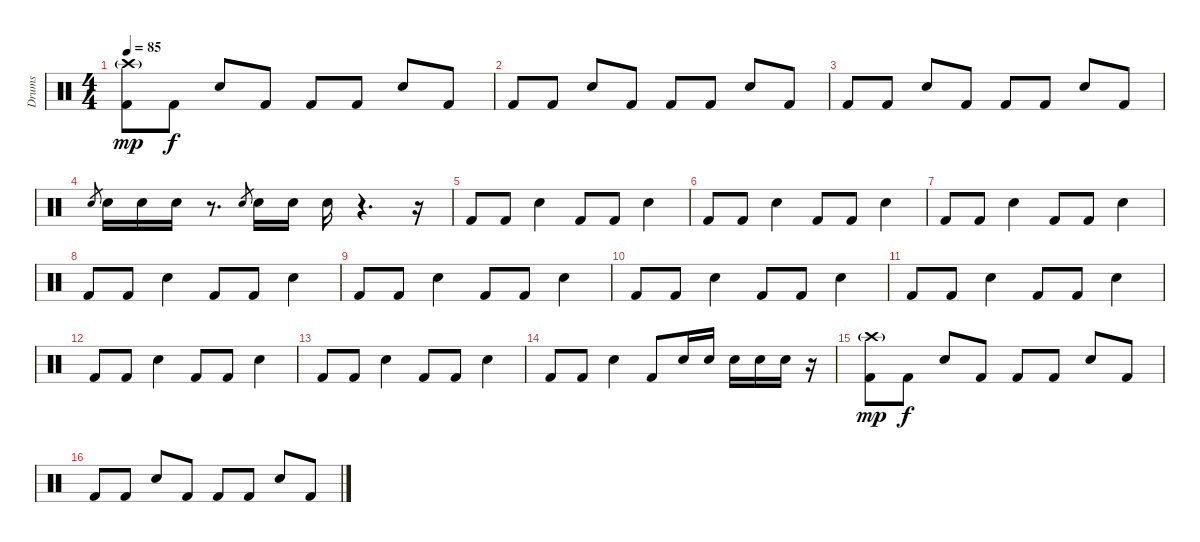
\track ("Drums" "Drums") {instrument percussion}
\staff {score}
\articulation defaults
\ts (4 4)
\tempo 85
\clef neutral
\ks c
("Kick (hit) 2" "Crash high (hit)"{g}).8{dy mp} "Kick (hit) 2".8{dy f} "Electric Snare (hit)".8 "Kick (hit) 2".8 "Kick (hit) 2".8 "Kick (hit) 2".8 "Electric Snare (hit)".8 "Kick (hit) 2".8 |
"Kick (hit) 2".8 "Kick (hit) 2".8 "Electric Snare (hit)".8 "Kick (hit) 2".8 "Kick (hit) 2".8 "Kick (hit) 2".8 "Electric Snare (hit)".8 "Kick (hit) 2".8 |
"Kick (hit) 2".8 "Kick (hit) 2".8 "Electric Snare (hit)".8 "Kick (hit) 2".8 "Kick (hit) 2".8 "Kick (hit) 2".8 "Electric Snare (hit)".8 "Kick (hit) 2".8 |
"Electric Snare (hit)".8{gr} "Electric Snare (hit)".16 "Electric Snare (hit)".16 "Electric Snare (hit)".16 r.8{d} "Electric Snare (hit)".8{gr} "Electric Snare (hit)".16 "Electric Snare (hit)".16 "Electric Snare (hit)".16 r.4{d} r.16 |
"Kick (hit) 2".8 "Kick (hit) 2".8 "Electric Snare (hit)".4 "Kick (hit) 2".8 "Kick (hit) 2".8 "Electric Snare (hit)".4 |
"Kick (hit) 2".8 "Kick (hit) 2".8 "Electric Snare (hit)".4 "Kick (hit) 2".8 "Kick (hit) 2".8 "Electric Snare (hit)".4 |
"Kick (hit) 2".8 "Kick (hit) 2".8 "Electric Snare (hit)".4 "Kick (hit) 2".8 "Kick (hit) 2".8 "Electric Snare (hit)".4 |
"Kick (hit) 2".8 "Kick (hit) 2".8 "Electric Snare (hit)".4 "Kick (hit) 2".8 "Kick (hit) 2".8 "Electric Snare (hit)".4 |
"Kick (hit) 2".8 "Kick (hit) 2".8 "Electric Snare (hit)".4 "Kick (hit) 2".8 "Kick (hit) 2".8 "Electric Snare (hit)".4 |
"Kick (hit) 2".8 "Kick (hit) 2".8 "Electric Snare (hit)".4 "Kick (hit) 2".8 "Kick (hit) 2".8 "Electric Snare (hit)".4 |
"Kick (hit) 2".8 "Kick (hit) 2".8 "Electric Snare (hit)".4 "Kick (hit) 2".8 "Kick (hit) 2".8 "Electric Snare (hit)".4 |
"Kick (hit) 2".8 "Kick (hit) 2".8 "Electric Snare (hit)".4 "Kick (hit) 2".8 "Kick (hit) 2".8 "Electric Snare (hit)".4 |
"Kick (hit) 2".8 "Kick (hit) 2".8 "Electric Snare (hit)".4 "Kick (hit) 2".8 "Kick (hit) 2".8 "Electric Snare (hit)".4 |
"Kick (hit) 2".8 "Kick (hit) 2".8 "Electric Snare (hit)".4 "Kick (hit) 2".8 "Electric Snare (hit)".16 "Electric Snare (hit)".16 "Electric Snare (hit)".16 "Electric Snare (hit)".16 "Electric Snare (hit)".16 r.16 |
("Kick (hit) 2" "Crash high (hit)"{g}).8{dy mp} "Kick (hit) 2".8{dy f} "Electric Snare (hit)".8 "Kick (hit) 2".8 "Kick (hit) 2".8 "Kick (hit) 2".8 "Electric Snare (hit)".8 "Kick (hit) 2".8 |
"Kick (hit) 2".8 "Kick (hit) 2".8 "Electric Snare (hit)".8 "Kick (hit) 2".8 "Kick (hit) 2".8 "Kick (hit) 2".8 "Electric Snare (hit)".8 "Kick (hit) 2".8
